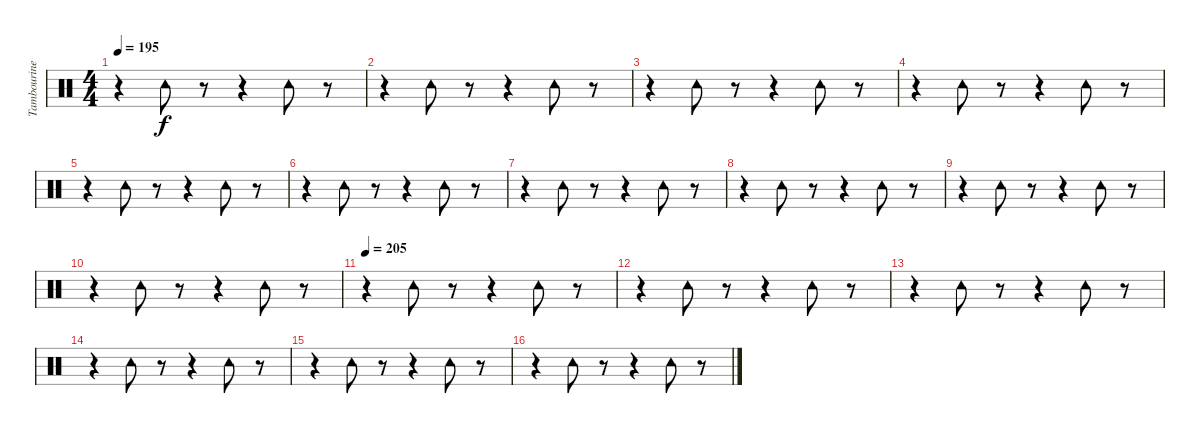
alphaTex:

\track ("Tambourine" "Tambourine") {instrument percussion}
\staff {score}
\articulation defaults
\ts (4 4)
\tempo 195
\clef neutral
\ks c
r.4{dy f} "Tambourine (hit)".8 r.8 r.4 "Tambourine (hit)".8 r.8 |
r.4 "Tambourine (hit)".8 r.8 r.4 "Tambourine (hit)".8 r.8 |
r.4 "Tambourine (hit)".8 r.8 r.4 "Tambourine (hit)".8 r.8 |
r.4 "Tambourine (hit)".8 r.8 r.4 "Tambourine (hit)".8 r.8 |
r.4 "Tambourine (hit)".8 r.8 r.4 "Tambourine (hit)".8 r.8 |
r.4 "Tambourine (hit)".8 r.8 r.4 "Tambourine (hit)".8 r.8 |
r.4 "Tambourine (hit)".8 r.8 r.4 "Tambourine (hit)".8 r.8 |
r.4 "Tambourine (hit)".8 r.8 r.4 "Tambourine (hit)".8 r.8 |
r.4 "Tambourine (hit)".8 r.8 r.4 "Tambourine (hit)".8 r.8 |
r.4 "Tambourine (hit)".8 r.8 r.4 "Tambourine (hit)".8 r.8 |
\tempo 205
r.4 "Tambourine (hit)".8 r.8 r.4 "Tambourine (hit)".8 r.8 |
r.4 "Tambourine (hit)".8 r.8 r.4 "Tambourine (hit)".8 r.8 |
r.4 "Tambourine (hit)".8 r.8 r.4 "Tambourine (hit)".8 r.8 |
r.4 "Tambourine (hit)".8 r.8 r.4 "Tambourine (hit)".8 r.8 |
r.4 "Tambourine (hit)".8 r.8 r.4 "Tambourine (hit)".8 r.8 |
r.4 "Tambourine (hit)".8 r.8 r.4 "Tambourine (hit)".8 r.8
